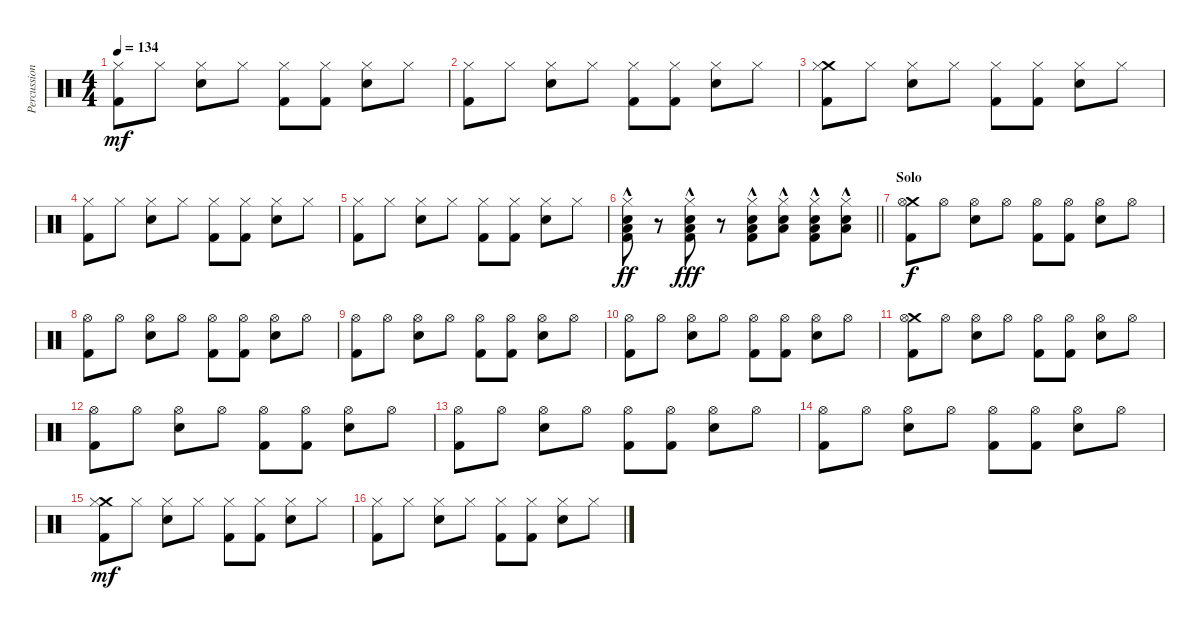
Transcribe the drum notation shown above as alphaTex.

\track ("Percussion" "Percussion") {instrument percussion}
\staff {score}
\articulation defaults
\ts (4 4)
\tempo 134
\clef neutral
\ks c
("Hi-Hat (closed)" "Kick (hit) 2").8{dy mf} "Hi-Hat (closed)".8 ("Hi-Hat (closed)" "Snare (hit) 2").8 "Hi-Hat (closed)".8 ("Hi-Hat (closed)" "Kick (hit) 2").8 ("Hi-Hat (closed)" "Kick (hit) 2").8 ("Hi-Hat (closed)" "Snare (hit) 2").8 "Hi-Hat (closed)".8 |
("Hi-Hat (closed)" "Kick (hit) 2").8 "Hi-Hat (closed)".8 ("Hi-Hat (closed)" "Snare (hit) 2").8 "Hi-Hat (closed)".8 ("Hi-Hat (closed)" "Kick (hit) 2").8 ("Hi-Hat (closed)" "Kick (hit) 2").8 ("Hi-Hat (closed)" "Snare (hit) 2").8 "Hi-Hat (closed)".8 |
("Crash medium (hit)" "Hi-Hat (closed)" "Kick (hit) 2").8 "Hi-Hat (closed)".8 ("Hi-Hat (closed)" "Snare (hit) 2").8 "Hi-Hat (closed)".8 ("Hi-Hat (closed)" "Kick (hit) 2").8 ("Hi-Hat (closed)" "Kick (hit) 2").8 ("Hi-Hat (closed)" "Snare (hit) 2").8 "Hi-Hat (closed)".8 |
("Hi-Hat (closed)" "Kick (hit) 2").8 "Hi-Hat (closed)".8 ("Hi-Hat (closed)" "Snare (hit) 2").8 "Hi-Hat (closed)".8 ("Hi-Hat (closed)" "Kick (hit) 2").8 ("Hi-Hat (closed)" "Kick (hit) 2").8 ("Hi-Hat (closed)" "Snare (hit) 2").8 "Hi-Hat (closed)".8 |
("Hi-Hat (closed)" "Kick (hit) 2").8 "Hi-Hat (closed)".8 ("Hi-Hat (closed)" "Snare (hit) 2").8 "Hi-Hat (closed)".8 ("Hi-Hat (closed)" "Kick (hit) 2").8 ("Hi-Hat (closed)" "Kick (hit) 2").8 ("Hi-Hat (closed)" "Snare (hit) 2").8 "Hi-Hat (closed)".8 |
\barLineRight lightlight
("Hi-Hat (closed)"{hac} "Snare (hit) 2"{hac} "Low Floor Tom (hit)"{hac} "Kick (hit) 2"{hac}).8{dy ff} r.8 ("Hi-Hat (closed)"{hac} "Snare (hit) 2"{hac} "Low Floor Tom (hit)"{hac} "Kick (hit) 2"{hac}).8{dy fff} r.8 ("Hi-Hat (closed)"{hac} "Snare (hit) 2"{hac} "Low Floor Tom (hit)"{hac} "Kick (hit) 2"{hac}).8 ("Hi-Hat (closed)"{hac} "Snare (hit) 2"{hac} "Low Floor Tom (hit)"{hac}).8 ("Hi-Hat (closed)"{hac} "Snare (hit) 2"{hac} "Low Floor Tom (hit)"{hac} "Kick (hit) 2"{hac}).8 ("Hi-Hat (closed)"{hac} "Snare (hit) 2"{hac} "Low Floor Tom (hit)"{hac}).8 |
\section ("" "Solo")
("Crash medium (hit)" "Hi-Hat (open)" "Kick (hit) 2").8{dy f} "Hi-Hat (open)".8 ("Hi-Hat (open)" "Snare (hit) 2").8 "Hi-Hat (open)".8 ("Hi-Hat (open)" "Kick (hit) 2").8 ("Hi-Hat (open)" "Kick (hit) 2").8 ("Hi-Hat (open)" "Snare (hit) 2").8 "Hi-Hat (open)".8 |
("Hi-Hat (open)" "Kick (hit) 2").8 "Hi-Hat (open)".8 ("Hi-Hat (open)" "Snare (hit) 2").8 "Hi-Hat (open)".8 ("Hi-Hat (open)" "Kick (hit) 2").8 ("Hi-Hat (open)" "Kick (hit) 2").8 ("Hi-Hat (open)" "Snare (hit) 2").8 "Hi-Hat (open)".8 |
("Hi-Hat (open)" "Kick (hit) 2").8 "Hi-Hat (open)".8 ("Hi-Hat (open)" "Snare (hit) 2").8 "Hi-Hat (open)".8 ("Hi-Hat (open)" "Kick (hit) 2").8 ("Hi-Hat (open)" "Kick (hit) 2").8 ("Hi-Hat (open)" "Snare (hit) 2").8 "Hi-Hat (open)".8 |
("Hi-Hat (open)" "Kick (hit) 2").8 "Hi-Hat (open)".8 ("Hi-Hat (open)" "Snare (hit) 2").8 "Hi-Hat (open)".8 ("Hi-Hat (open)" "Kick (hit) 2").8 ("Hi-Hat (open)" "Kick (hit) 2").8 ("Hi-Hat (open)" "Snare (hit) 2").8 "Hi-Hat (open)".8 |
("Crash medium (hit)" "Hi-Hat (open)" "Kick (hit) 2").8 "Hi-Hat (open)".8 ("Hi-Hat (open)" "Snare (hit) 2").8 "Hi-Hat (open)".8 ("Hi-Hat (open)" "Kick (hit) 2").8 ("Hi-Hat (open)" "Kick (hit) 2").8 ("Hi-Hat (open)" "Snare (hit) 2").8 "Hi-Hat (open)".8 |
("Hi-Hat (open)" "Kick (hit) 2").8 "Hi-Hat (open)".8 ("Hi-Hat (open)" "Snare (hit) 2").8 "Hi-Hat (open)".8 ("Hi-Hat (open)" "Kick (hit) 2").8 ("Hi-Hat (open)" "Kick (hit) 2").8 ("Hi-Hat (open)" "Snare (hit) 2").8 "Hi-Hat (open)".8 |
("Hi-Hat (open)" "Kick (hit) 2").8 "Hi-Hat (open)".8 ("Hi-Hat (open)" "Snare (hit) 2").8 "Hi-Hat (open)".8 ("Hi-Hat (open)" "Kick (hit) 2").8 ("Hi-Hat (open)" "Kick (hit) 2").8 ("Hi-Hat (open)" "Snare (hit) 2").8 "Hi-Hat (open)".8 |
("Hi-Hat (open)" "Kick (hit) 2").8 "Hi-Hat (open)".8 ("Hi-Hat (open)" "Snare (hit) 2").8 "Hi-Hat (open)".8 ("Hi-Hat (open)" "Kick (hit) 2").8 ("Hi-Hat (open)" "Kick (hit) 2").8 ("Hi-Hat (open)" "Snare (hit) 2").8 "Hi-Hat (open)".8 |
("Crash medium (hit)" "Hi-Hat (closed)" "Kick (hit) 2").8{dy mf} "Hi-Hat (closed)".8 ("Hi-Hat (closed)" "Snare (hit) 2").8 "Hi-Hat (closed)".8 ("Hi-Hat (closed)" "Kick (hit) 2").8 ("Hi-Hat (closed)" "Kick (hit) 2").8 ("Hi-Hat (closed)" "Snare (hit) 2").8 "Hi-Hat (closed)".8 |
("Hi-Hat (closed)" "Kick (hit) 2").8 "Hi-Hat (closed)".8 ("Hi-Hat (closed)" "Snare (hit) 2").8 "Hi-Hat (closed)".8 ("Hi-Hat (closed)" "Kick (hit) 2").8 ("Hi-Hat (closed)" "Kick (hit) 2").8 ("Hi-Hat (closed)" "Snare (hit) 2").8 "Hi-Hat (closed)".8
